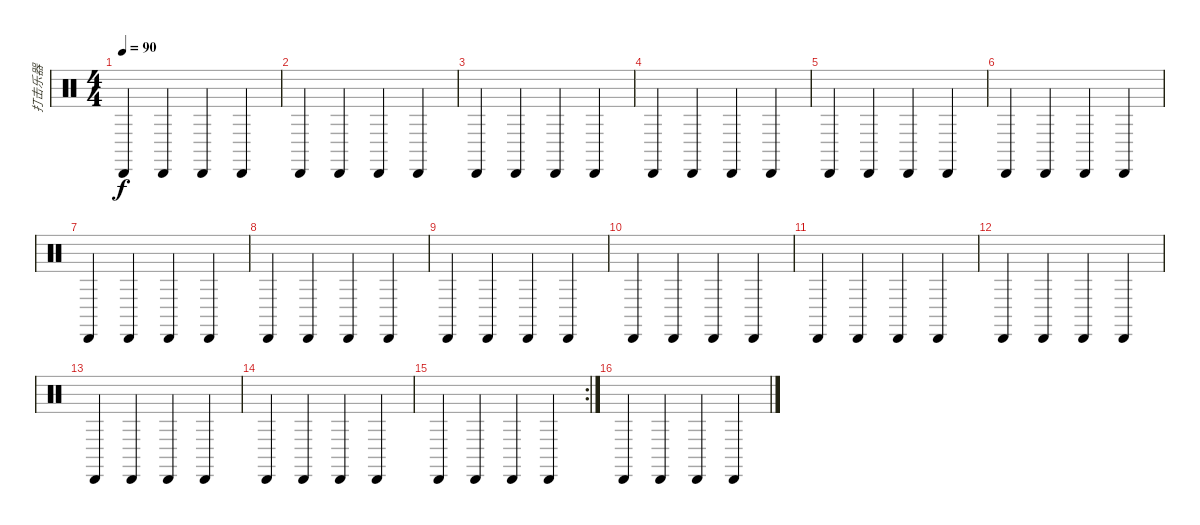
\track ("打击乐器" "打击乐器") {instrument percussion}
\staff {score}
\articulation defaults
\ts (4 4)
\tempo 90
\clef neutral
\ks c "Cabasa (hit)".4{dy f} "Cabasa (hit)".4 "Cabasa (hit)".4 "Cabasa (hit)".4
|
"Cabasa (hit)".4 "Cabasa (hit)".4 "Cabasa (hit)".4 "Cabasa (hit)".4 |
"Cabasa (hit)".4 "Cabasa (hit)".4 "Cabasa (hit)".4 "Cabasa (hit)".4 |
"Cabasa (hit)".4 "Cabasa (hit)".4 "Cabasa (hit)".4 "Cabasa (hit)".4 |
"Cabasa (hit)".4 "Cabasa (hit)".4 "Cabasa (hit)".4 "Cabasa (hit)".4 |
"Cabasa (hit)".4 "Cabasa (hit)".4 "Cabasa (hit)".4 "Cabasa (hit)".4 |
"Cabasa (hit)".4 "Cabasa (hit)".4 "Cabasa (hit)".4 "Cabasa (hit)".4 |
"Cabasa (hit)".4 "Cabasa (hit)".4 "Cabasa (hit)".4 "Cabasa (hit)".4 |
"Cabasa (hit)".4 "Cabasa (hit)".4 "Cabasa (hit)".4 "Cabasa (hit)".4 |
"Cabasa (hit)".4 "Cabasa (hit)".4 "Cabasa (hit)".4 "Cabasa (hit)".4 |
"Cabasa (hit)".4 "Cabasa (hit)".4 "Cabasa (hit)".4 "Cabasa (hit)".4 |
"Cabasa (hit)".4 "Cabasa (hit)".4 "Cabasa (hit)".4 "Cabasa (hit)".4 |
"Cabasa (hit)".4 "Cabasa (hit)".4 "Cabasa (hit)".4 "Cabasa (hit)".4 |
"Cabasa (hit)".4 "Cabasa (hit)".4 "Cabasa (hit)".4 "Cabasa (hit)".4 |
\rc 2 "Cabasa (hit)".4 "Cabasa (hit)".4 "Cabasa (hit)".4 "Cabasa (hit)".4
|
"Cabasa (hit)".4 "Cabasa (hit)".4 "Cabasa (hit)".4 "Cabasa (hit)".4
